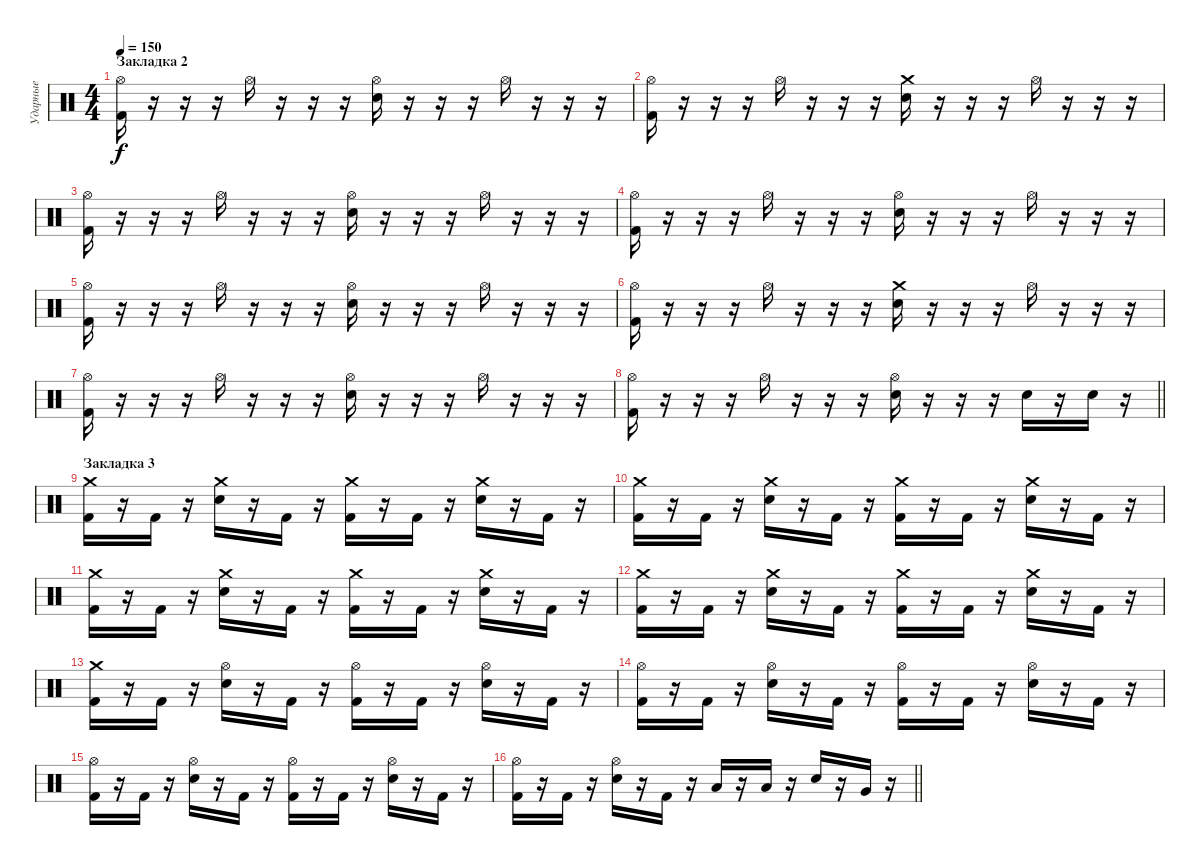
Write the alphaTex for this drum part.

\track ("Ударные" "Ударные") {instrument percussion}
\staff {score}
\articulation defaults
\ts (4 4)
\section ("" "Закладка 2")
\tempo 150
\clef neutral
\ks c
("Hi-Hat (open)" "Kick (hit) 2").16{dy f} r.16 r.16 r.16 "Hi-Hat (open)".16 r.16 r.16 r.16 ("Hi-Hat (open)" "Electric Snare (hit)").16 r.16 r.16 r.16 "Hi-Hat (open)".16 r.16 r.16 r.16 |
("Hi-Hat (open)" "Kick (hit) 2").16 r.16 r.16 r.16 "Hi-Hat (open)".16 r.16 r.16 r.16 ("Crash medium (hit)" "Electric Snare (hit)").16 r.16 r.16 r.16 "Hi-Hat (open)".16 r.16 r.16 r.16 |
("Hi-Hat (open)" "Kick (hit) 2").16 r.16 r.16 r.16 "Hi-Hat (open)".16 r.16 r.16 r.16 ("Hi-Hat (open)" "Electric Snare (hit)").16 r.16 r.16 r.16 "Hi-Hat (open)".16 r.16 r.16 r.16 |
("Hi-Hat (open)" "Kick (hit) 2").16 r.16 r.16 r.16 "Hi-Hat (open)".16 r.16 r.16 r.16 ("Hi-Hat (open)" "Electric Snare (hit)").16 r.16 r.16 r.16 "Hi-Hat (open)".16 r.16 r.16 r.16 |
("Hi-Hat (open)" "Kick (hit) 2").16 r.16 r.16 r.16 "Hi-Hat (open)".16 r.16 r.16 r.16 ("Hi-Hat (open)" "Electric Snare (hit)").16 r.16 r.16 r.16 "Hi-Hat (open)".16 r.16 r.16 r.16 |
("Hi-Hat (open)" "Kick (hit) 2").16 r.16 r.16 r.16 "Hi-Hat (open)".16 r.16 r.16 r.16 ("Crash medium (hit)" "Electric Snare (hit)").16 r.16 r.16 r.16 "Hi-Hat (open)".16 r.16 r.16 r.16 |
("Hi-Hat (open)" "Kick (hit) 2").16 r.16 r.16 r.16 "Hi-Hat (open)".16 r.16 r.16 r.16 ("Hi-Hat (open)" "Electric Snare (hit)").16 r.16 r.16 r.16 "Hi-Hat (open)".16 r.16 r.16 r.16 |
\barLineRight lightlight
("Hi-Hat (open)" "Kick (hit) 2").16 r.16 r.16 r.16 "Hi-Hat (open)".16 r.16 r.16 r.16 ("Hi-Hat (open)" "Electric Snare (hit)").16 r.16 r.16 r.16 "Electric Snare (hit)".16 r.16 "Electric Snare (hit)".16 r.16 |
\section ("" "Закладка 3")
("Crash medium (hit)" "Kick (hit) 2").16 r.16 "Kick (hit) 2".16 r.16 ("Crash medium (hit)" "Electric Snare (hit)").16 r.16 "Kick (hit) 2".16 r.16 ("Crash medium (hit)" "Kick (hit) 2").16 r.16 "Kick (hit) 2".16 r.16 ("Crash medium (hit)" "Electric Snare (hit)").16 r.16 "Kick (hit) 2".16 r.16 |
("Crash medium (hit)" "Kick (hit) 2").16 r.16 "Kick (hit) 2".16 r.16 ("Crash medium (hit)" "Electric Snare (hit)").16 r.16 "Kick (hit) 2".16 r.16 ("Crash medium (hit)" "Kick (hit) 2").16 r.16 "Kick (hit) 2".16 r.16 ("Crash medium (hit)" "Electric Snare (hit)").16 r.16 "Kick (hit) 2".16 r.16 |
("Crash medium (hit)" "Kick (hit) 2").16 r.16 "Kick (hit) 2".16 r.16 ("Crash medium (hit)" "Electric Snare (hit)").16 r.16 "Kick (hit) 2".16 r.16 ("Crash medium (hit)" "Kick (hit) 2").16 r.16 "Kick (hit) 2".16 r.16 ("Crash medium (hit)" "Electric Snare (hit)").16 r.16 "Kick (hit) 2".16 r.16 |
("Crash medium (hit)" "Kick (hit) 2").16 r.16 "Kick (hit) 2".16 r.16 ("Crash medium (hit)" "Electric Snare (hit)").16 r.16 "Kick (hit) 2".16 r.16 ("Crash medium (hit)" "Kick (hit) 2").16 r.16 "Kick (hit) 2".16 r.16 ("Crash medium (hit)" "Electric Snare (hit)").16 r.16 "Kick (hit) 2".16 r.16 |
("Crash medium (hit)" "Kick (hit) 2").16 r.16 "Kick (hit) 2".16 r.16 ("Hi-Hat (open)" "Electric Snare (hit)").16 r.16 "Kick (hit) 2".16 r.16 ("Hi-Hat (open)" "Kick (hit) 2").16 r.16 "Kick (hit) 2".16 r.16 ("Hi-Hat (open)" "Electric Snare (hit)").16 r.16 "Kick (hit) 2".16 r.16 |
("Hi-Hat (open)" "Kick (hit) 2").16 r.16 "Kick (hit) 2".16 r.16 ("Hi-Hat (open)" "Electric Snare (hit)").16 r.16 "Kick (hit) 2".16 r.16 ("Hi-Hat (open)" "Kick (hit) 2").16 r.16 "Kick (hit) 2".16 r.16 ("Hi-Hat (open)" "Electric Snare (hit)").16 r.16 "Kick (hit) 2".16 r.16 |
("Hi-Hat (open)" "Kick (hit) 2").16 r.16 "Kick (hit) 2".16 r.16 ("Hi-Hat (open)" "Electric Snare (hit)").16 r.16 "Kick (hit) 2".16 r.16 ("Hi-Hat (open)" "Kick (hit) 2").16 r.16 "Kick (hit) 2".16 r.16 ("Hi-Hat (open)" "Electric Snare (hit)").16 r.16 "Kick (hit) 2".16 r.16 |
\barLineRight lightlight
("Hi-Hat (open)" "Kick (hit) 2").16 r.16 "Kick (hit) 2".16 r.16 ("Hi-Hat (open)" "Electric Snare (hit)").16 r.16 "Kick (hit) 2".16 r.16 "Low Tom (hit)".16 r.16 "Low Tom (hit)".16 r.16 "Electric Snare (hit)".16 r.16 "Very Low Tom (hit)".16 r.16
